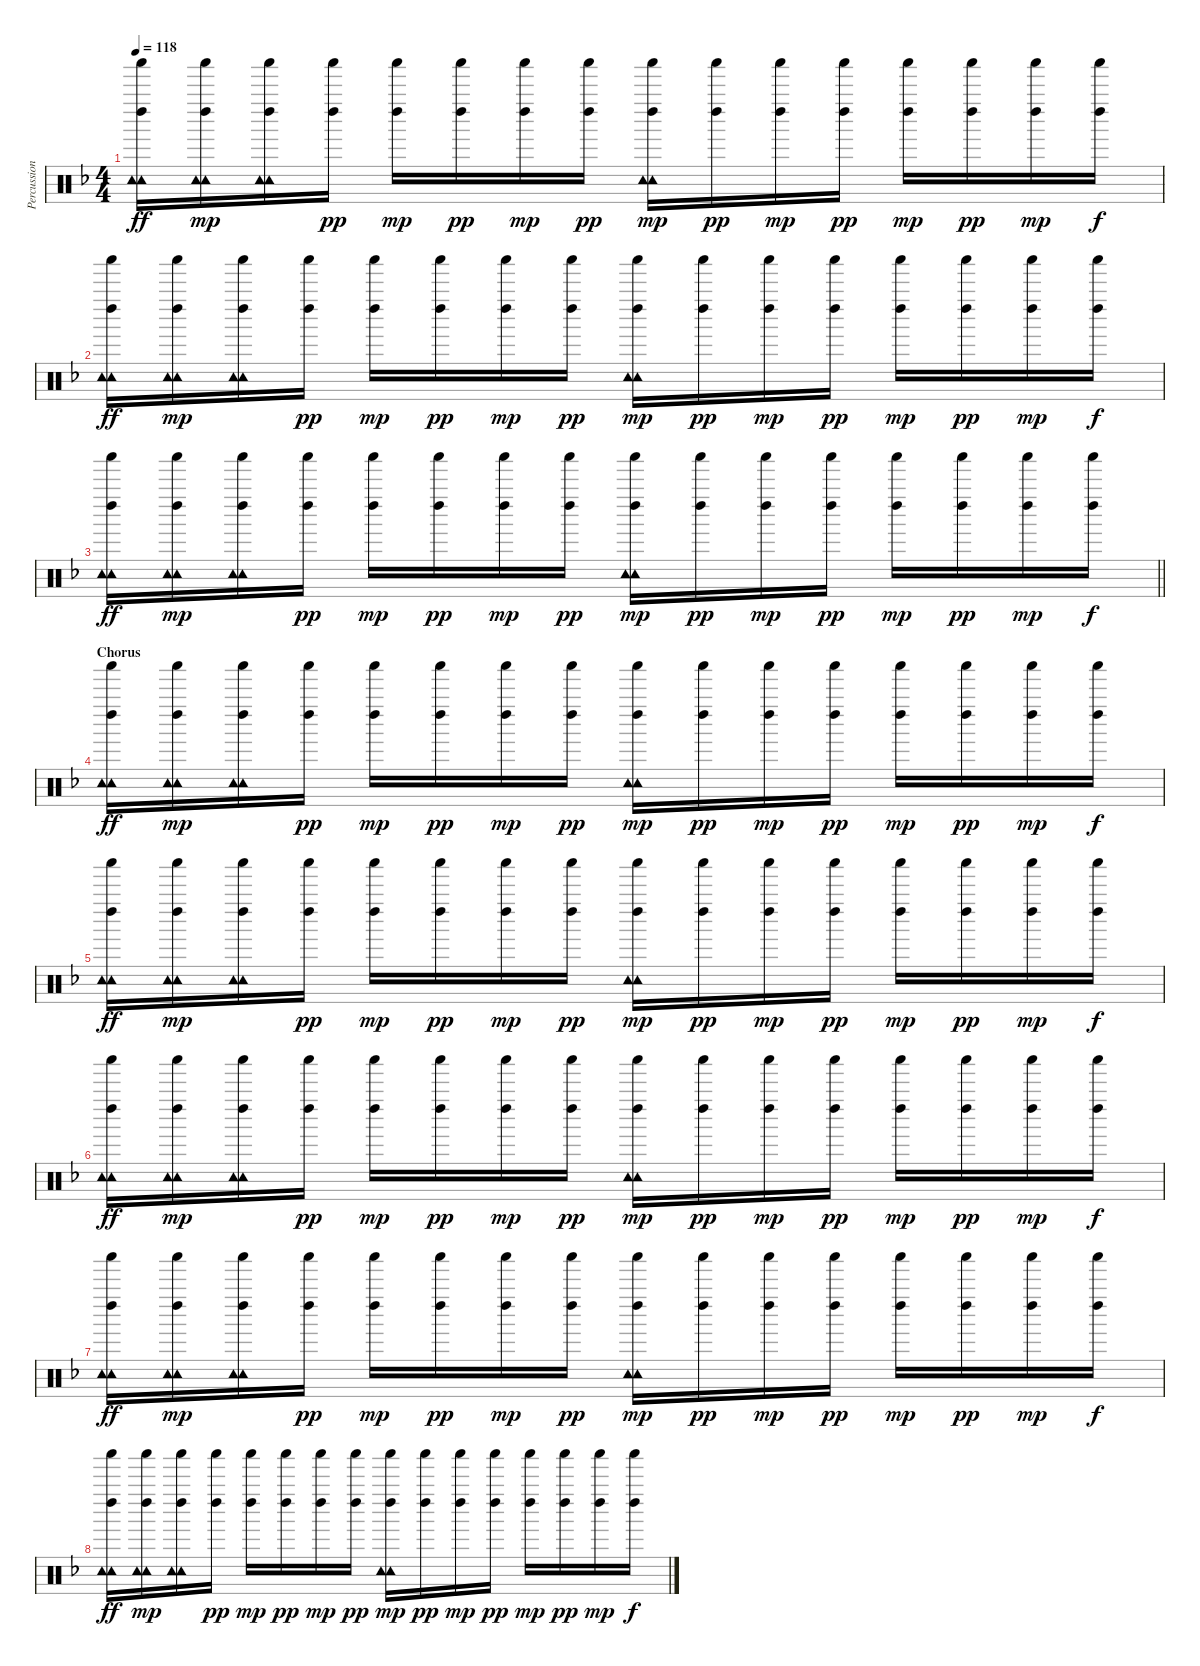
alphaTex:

\track ("Percussion" "Percussion") {instrument percussion}
\staff {score}
\articulation defaults
\ts (4 4)
\tempo 118
\clef neutral
\ks f
("Tambourine (hit)" "Tambourine (hit)" "Left Maraca (hit)" "Shaker (hit)").16{dy ff} ("Tambourine (hit)" "Tambourine (hit)" "Left Maraca (hit)" "Shaker (hit)").16{dy mp} ("Tambourine (hit)" "Tambourine (hit)" "Left Maraca (hit)" "Shaker (hit)").16 ("Left Maraca (hit)" "Shaker (hit)").16{dy pp} ("Left Maraca (hit)" "Shaker (hit)").16{dy mp} ("Left Maraca (hit)" "Shaker (hit)").16{dy pp} ("Left Maraca (hit)" "Shaker (hit)").16{dy mp} ("Left Maraca (hit)" "Shaker (hit)").16{dy pp} ("Tambourine (hit)" "Tambourine (hit)" "Left Maraca (hit)" "Shaker (hit)").16{dy mp} ("Left Maraca (hit)" "Shaker (hit)").16{dy pp} ("Left Maraca (hit)" "Shaker (hit)").16{dy mp} ("Left Maraca (hit)" "Shaker (hit)").16{dy pp} ("Left Maraca (hit)" "Shaker (hit)").16{dy mp} ("Left Maraca (hit)" "Shaker (hit)").16{dy pp} ("Left Maraca (hit)" "Shaker (hit)").16{dy mp} ("Left Maraca (hit)" "Shaker (hit)").16{dy f} |
("Tambourine (hit)" "Tambourine (hit)" "Left Maraca (hit)" "Shaker (hit)").16{dy ff} ("Tambourine (hit)" "Tambourine (hit)" "Left Maraca (hit)" "Shaker (hit)").16{dy mp} ("Tambourine (hit)" "Tambourine (hit)" "Left Maraca (hit)" "Shaker (hit)").16 ("Left Maraca (hit)" "Shaker (hit)").16{dy pp} ("Left Maraca (hit)" "Shaker (hit)").16{dy mp} ("Left Maraca (hit)" "Shaker (hit)").16{dy pp} ("Left Maraca (hit)" "Shaker (hit)").16{dy mp} ("Left Maraca (hit)" "Shaker (hit)").16{dy pp} ("Tambourine (hit)" "Tambourine (hit)" "Left Maraca (hit)" "Shaker (hit)").16{dy mp} ("Left Maraca (hit)" "Shaker (hit)").16{dy pp} ("Left Maraca (hit)" "Shaker (hit)").16{dy mp} ("Left Maraca (hit)" "Shaker (hit)").16{dy pp} ("Left Maraca (hit)" "Shaker (hit)").16{dy mp} ("Left Maraca (hit)" "Shaker (hit)").16{dy pp} ("Left Maraca (hit)" "Shaker (hit)").16{dy mp} ("Left Maraca (hit)" "Shaker (hit)").16{dy f} |
\barLineRight lightlight
("Tambourine (hit)" "Tambourine (hit)" "Left Maraca (hit)" "Shaker (hit)").16{dy ff} ("Tambourine (hit)" "Tambourine (hit)" "Left Maraca (hit)" "Shaker (hit)").16{dy mp} ("Tambourine (hit)" "Tambourine (hit)" "Left Maraca (hit)" "Shaker (hit)").16 ("Left Maraca (hit)" "Shaker (hit)").16{dy pp} ("Left Maraca (hit)" "Shaker (hit)").16{dy mp} ("Left Maraca (hit)" "Shaker (hit)").16{dy pp} ("Left Maraca (hit)" "Shaker (hit)").16{dy mp} ("Left Maraca (hit)" "Shaker (hit)").16{dy pp} ("Tambourine (hit)" "Tambourine (hit)" "Left Maraca (hit)" "Shaker (hit)").16{dy mp} ("Left Maraca (hit)" "Shaker (hit)").16{dy pp} ("Left Maraca (hit)" "Shaker (hit)").16{dy mp} ("Left Maraca (hit)" "Shaker (hit)").16{dy pp} ("Left Maraca (hit)" "Shaker (hit)").16{dy mp} ("Left Maraca (hit)" "Shaker (hit)").16{dy pp} ("Left Maraca (hit)" "Shaker (hit)").16{dy mp} ("Left Maraca (hit)" "Shaker (hit)").16{dy f} |
\section ("" "Chorus")
("Tambourine (hit)" "Tambourine (hit)" "Left Maraca (hit)" "Shaker (hit)").16{dy ff} ("Tambourine (hit)" "Tambourine (hit)" "Left Maraca (hit)" "Shaker (hit)").16{dy mp} ("Tambourine (hit)" "Tambourine (hit)" "Left Maraca (hit)" "Shaker (hit)").16 ("Left Maraca (hit)" "Shaker (hit)").16{dy pp} ("Left Maraca (hit)" "Shaker (hit)").16{dy mp} ("Left Maraca (hit)" "Shaker (hit)").16{dy pp} ("Left Maraca (hit)" "Shaker (hit)").16{dy mp} ("Left Maraca (hit)" "Shaker (hit)").16{dy pp} ("Tambourine (hit)" "Tambourine (hit)" "Left Maraca (hit)" "Shaker (hit)").16{dy mp} ("Left Maraca (hit)" "Shaker (hit)").16{dy pp} ("Left Maraca (hit)" "Shaker (hit)").16{dy mp} ("Left Maraca (hit)" "Shaker (hit)").16{dy pp} ("Left Maraca (hit)" "Shaker (hit)").16{dy mp} ("Left Maraca (hit)" "Shaker (hit)").16{dy pp} ("Left Maraca (hit)" "Shaker (hit)").16{dy mp} ("Left Maraca (hit)" "Shaker (hit)").16{dy f} |
("Tambourine (hit)" "Tambourine (hit)" "Left Maraca (hit)" "Shaker (hit)").16{dy ff} ("Tambourine (hit)" "Tambourine (hit)" "Left Maraca (hit)" "Shaker (hit)").16{dy mp} ("Tambourine (hit)" "Tambourine (hit)" "Left Maraca (hit)" "Shaker (hit)").16 ("Left Maraca (hit)" "Shaker (hit)").16{dy pp} ("Left Maraca (hit)" "Shaker (hit)").16{dy mp} ("Left Maraca (hit)" "Shaker (hit)").16{dy pp} ("Left Maraca (hit)" "Shaker (hit)").16{dy mp} ("Left Maraca (hit)" "Shaker (hit)").16{dy pp} ("Tambourine (hit)" "Tambourine (hit)" "Left Maraca (hit)" "Shaker (hit)").16{dy mp} ("Left Maraca (hit)" "Shaker (hit)").16{dy pp} ("Left Maraca (hit)" "Shaker (hit)").16{dy mp} ("Left Maraca (hit)" "Shaker (hit)").16{dy pp} ("Left Maraca (hit)" "Shaker (hit)").16{dy mp} ("Left Maraca (hit)" "Shaker (hit)").16{dy pp} ("Left Maraca (hit)" "Shaker (hit)").16{dy mp} ("Left Maraca (hit)" "Shaker (hit)").16{dy f} |
("Tambourine (hit)" "Tambourine (hit)" "Left Maraca (hit)" "Shaker (hit)").16{dy ff} ("Tambourine (hit)" "Tambourine (hit)" "Left Maraca (hit)" "Shaker (hit)").16{dy mp} ("Tambourine (hit)" "Tambourine (hit)" "Left Maraca (hit)" "Shaker (hit)").16 ("Left Maraca (hit)" "Shaker (hit)").16{dy pp} ("Left Maraca (hit)" "Shaker (hit)").16{dy mp} ("Left Maraca (hit)" "Shaker (hit)").16{dy pp} ("Left Maraca (hit)" "Shaker (hit)").16{dy mp} ("Left Maraca (hit)" "Shaker (hit)").16{dy pp} ("Tambourine (hit)" "Tambourine (hit)" "Left Maraca (hit)" "Shaker (hit)").16{dy mp} ("Left Maraca (hit)" "Shaker (hit)").16{dy pp} ("Left Maraca (hit)" "Shaker (hit)").16{dy mp} ("Left Maraca (hit)" "Shaker (hit)").16{dy pp} ("Left Maraca (hit)" "Shaker (hit)").16{dy mp} ("Left Maraca (hit)" "Shaker (hit)").16{dy pp} ("Left Maraca (hit)" "Shaker (hit)").16{dy mp} ("Left Maraca (hit)" "Shaker (hit)").16{dy f} |
("Tambourine (hit)" "Tambourine (hit)" "Left Maraca (hit)" "Shaker (hit)").16{dy ff} ("Tambourine (hit)" "Tambourine (hit)" "Left Maraca (hit)" "Shaker (hit)").16{dy mp} ("Tambourine (hit)" "Tambourine (hit)" "Left Maraca (hit)" "Shaker (hit)").16 ("Left Maraca (hit)" "Shaker (hit)").16{dy pp} ("Left Maraca (hit)" "Shaker (hit)").16{dy mp} ("Left Maraca (hit)" "Shaker (hit)").16{dy pp} ("Left Maraca (hit)" "Shaker (hit)").16{dy mp} ("Left Maraca (hit)" "Shaker (hit)").16{dy pp} ("Tambourine (hit)" "Tambourine (hit)" "Left Maraca (hit)" "Shaker (hit)").16{dy mp} ("Left Maraca (hit)" "Shaker (hit)").16{dy pp} ("Left Maraca (hit)" "Shaker (hit)").16{dy mp} ("Left Maraca (hit)" "Shaker (hit)").16{dy pp} ("Left Maraca (hit)" "Shaker (hit)").16{dy mp} ("Left Maraca (hit)" "Shaker (hit)").16{dy pp} ("Left Maraca (hit)" "Shaker (hit)").16{dy mp} ("Left Maraca (hit)" "Shaker (hit)").16{dy f} |
("Tambourine (hit)" "Tambourine (hit)" "Left Maraca (hit)" "Shaker (hit)").16{dy ff} ("Tambourine (hit)" "Tambourine (hit)" "Left Maraca (hit)" "Shaker (hit)").16{dy mp} ("Tambourine (hit)" "Tambourine (hit)" "Left Maraca (hit)" "Shaker (hit)").16 ("Left Maraca (hit)" "Shaker (hit)").16{dy pp} ("Left Maraca (hit)" "Shaker (hit)").16{dy mp} ("Left Maraca (hit)" "Shaker (hit)").16{dy pp} ("Left Maraca (hit)" "Shaker (hit)").16{dy mp} ("Left Maraca (hit)" "Shaker (hit)").16{dy pp} ("Tambourine (hit)" "Tambourine (hit)" "Left Maraca (hit)" "Shaker (hit)").16{dy mp} ("Left Maraca (hit)" "Shaker (hit)").16{dy pp} ("Left Maraca (hit)" "Shaker (hit)").16{dy mp} ("Left Maraca (hit)" "Shaker (hit)").16{dy pp} ("Left Maraca (hit)" "Shaker (hit)").16{dy mp} ("Left Maraca (hit)" "Shaker (hit)").16{dy pp} ("Left Maraca (hit)" "Shaker (hit)").16{dy mp} ("Left Maraca (hit)" "Shaker (hit)").16{dy f}
